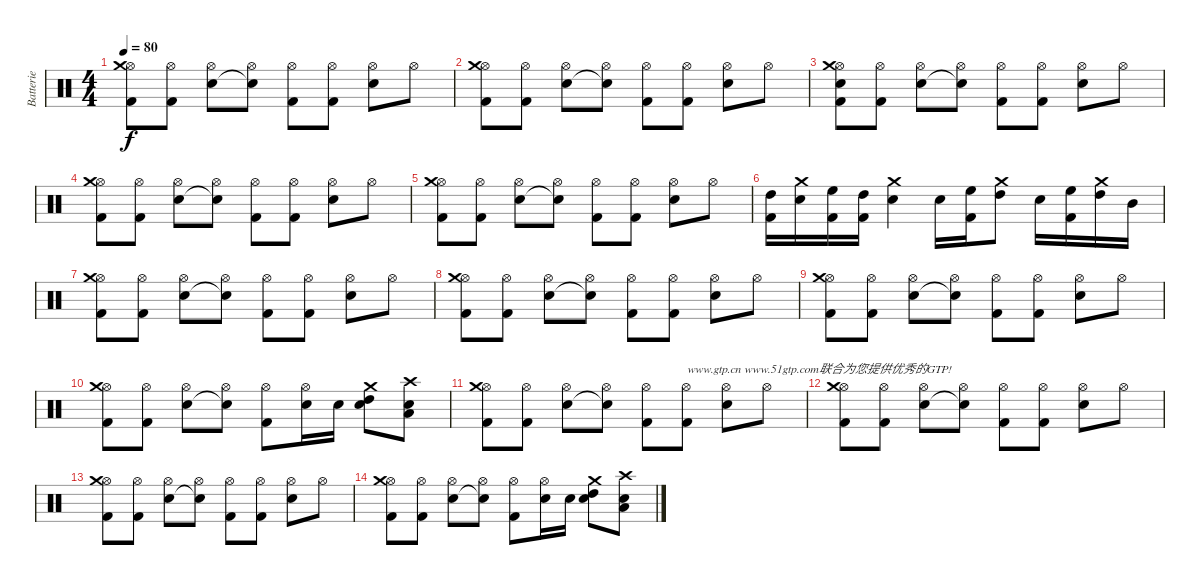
\track ("Batterie" "Batterie") {instrument percussion}
\staff {score}
\articulation defaults
\ts (4 4)
\tempo 80
\clef neutral
\ks c
("Hi-Hat (open)" "Crash medium (hit)" "Kick (hit) 2").8{dy f} ("Hi-Hat (open)" "Kick (hit) 2").8 ("Hi-Hat (open)" "Snare (hit) 2").8 ("Hi-Hat (open)" "Snare (hit)"{t}).8 ("Hi-Hat (open)" "Kick (hit) 2").8 ("Hi-Hat (open)" "Kick (hit) 2").8 ("Hi-Hat (open)" "Snare (hit) 2").8 "Hi-Hat (open)".8 |
("Hi-Hat (open)" "Crash medium (hit)" "Kick (hit) 2").8 ("Hi-Hat (open)" "Kick (hit) 2").8 ("Hi-Hat (open)" "Snare (hit) 2").8 ("Hi-Hat (open)" "Snare (hit)"{t}).8 ("Hi-Hat (open)" "Kick (hit) 2").8 ("Hi-Hat (open)" "Kick (hit) 2").8 ("Hi-Hat (open)" "Snare (hit) 2").8 "Hi-Hat (open)".8 |
("Hi-Hat (open)" "Crash medium (hit)" "Kick (hit) 2" "Snare (hit) 2").8 ("Hi-Hat (open)" "Kick (hit) 2").8 ("Hi-Hat (open)" "Snare (hit) 2").8 ("Hi-Hat (open)" "Snare (hit)"{t}).8 ("Hi-Hat (open)" "Kick (hit) 2").8 ("Hi-Hat (open)" "Kick (hit) 2").8 ("Hi-Hat (open)" "Snare (hit) 2").8 "Hi-Hat (open)".8 |
("Hi-Hat (open)" "Crash medium (hit)" "Kick (hit) 2").8 ("Hi-Hat (open)" "Kick (hit) 2").8 ("Hi-Hat (open)" "Snare (hit) 2").8 ("Hi-Hat (open)" "Snare (hit)"{t}).8 ("Hi-Hat (open)" "Kick (hit) 2").8 ("Hi-Hat (open)" "Kick (hit) 2").8 ("Hi-Hat (open)" "Snare (hit) 2").8 "Hi-Hat (open)".8 |
("Hi-Hat (open)" "Crash medium (hit)" "Kick (hit) 2").8 ("Hi-Hat (open)" "Kick (hit) 2").8 ("Hi-Hat (open)" "Snare (hit) 2").8 ("Hi-Hat (open)" "Snare (hit)"{t}).8 ("Hi-Hat (open)" "Kick (hit) 2").8 ("Hi-Hat (open)" "Kick (hit) 2").8 ("Hi-Hat (open)" "Snare (hit) 2").8 "Hi-Hat (open)".8 |
("Kick (hit) 2" "High Tom (hit)").16 ("Crash medium (hit)" "Snare (hit) 2").16 ("Kick (hit) 2" "High Floor Tom (hit)").16 ("Kick (hit) 2" "High Tom (hit)").16 ("Crash medium (hit)" "Snare (hit) 2").4 "Snare (hit) 2".16 ("Kick (hit) 2" "High Floor Tom (hit)").16 ("Crash medium (hit)" "High Tom (hit)").8 "Snare (hit) 2".16 ("Kick (hit) 2" "High Floor Tom (hit)").16 ("Crash medium (hit)" "High Tom (hit)").16 "Mid Tom (hit)".16 |
("Hi-Hat (open)" "Crash medium (hit)" "Kick (hit) 2").8 ("Hi-Hat (open)" "Kick (hit) 2").8 ("Hi-Hat (open)" "Snare (hit) 2").8 ("Hi-Hat (open)" "Snare (hit)"{t}).8 ("Hi-Hat (open)" "Kick (hit) 2").8 ("Hi-Hat (open)" "Kick (hit) 2").8 ("Hi-Hat (open)" "Snare (hit) 2").8 "Hi-Hat (open)".8 |
("Hi-Hat (open)" "Crash medium (hit)" "Kick (hit) 2").8 ("Hi-Hat (open)" "Kick (hit) 2").8 ("Hi-Hat (open)" "Snare (hit) 2").8 ("Hi-Hat (open)" "Snare (hit)"{t}).8 ("Hi-Hat (open)" "Kick (hit) 2").8 ("Hi-Hat (open)" "Kick (hit) 2").8 ("Hi-Hat (open)" "Snare (hit) 2").8 "Hi-Hat (open)".8 |
("Hi-Hat (open)" "Crash medium (hit)" "Kick (hit) 2").8 ("Hi-Hat (open)" "Kick (hit) 2").8 ("Hi-Hat (open)" "Snare (hit) 2").8 ("Hi-Hat (open)" "Snare (hit)"{t}).8 ("Hi-Hat (open)" "Kick (hit) 2").8 ("Hi-Hat (open)" "Kick (hit) 2").8 ("Hi-Hat (open)" "Snare (hit) 2").8 "Hi-Hat (open)".8 |
("Hi-Hat (open)" "Crash medium (hit)" "Kick (hit) 2").8 ("Hi-Hat (open)" "Kick (hit) 2").8 ("Hi-Hat (open)" "Snare (hit) 2").8 ("Hi-Hat (open)" "Snare (hit)"{t}).8 ("Hi-Hat (open)" "Kick (hit) 2").8 ("Hi-Hat (open)" "Snare (hit) 2").16 "Snare (hit) 2".16 ("Crash medium (hit)" "High Tom (hit)" "Snare (hit) 2").8 ("Crash high (hit)" "Low Tom (hit)" "Snare (hit) 2").8 |
("Hi-Hat (open)" "Crash medium (hit)" "Kick (hit) 2").8 ("Hi-Hat (open)" "Kick (hit) 2").8 ("Hi-Hat (open)" "Snare (hit) 2").8 ("Hi-Hat (open)" "Snare (hit)"{t}).8 ("Hi-Hat (open)" "Kick (hit) 2").8 ("Hi-Hat (open)" "Kick (hit) 2").8{txt "www.gtp.cn www.51gtp.com联合为您提供优秀的GTP!"} ("Hi-Hat (open)" "Snare (hit) 2").8 "Hi-Hat (open)".8 |
("Hi-Hat (open)" "Crash medium (hit)" "Kick (hit) 2").8 ("Hi-Hat (open)" "Kick (hit) 2").8 ("Hi-Hat (open)" "Snare (hit) 2").8 ("Hi-Hat (open)" "Snare (hit)"{t}).8 ("Hi-Hat (open)" "Kick (hit) 2").8 ("Hi-Hat (open)" "Kick (hit) 2").8 ("Hi-Hat (open)" "Snare (hit) 2").8 "Hi-Hat (open)".8 |
("Hi-Hat (open)" "Crash medium (hit)" "Kick (hit) 2").8 ("Hi-Hat (open)" "Kick (hit) 2").8 ("Hi-Hat (open)" "Snare (hit) 2").8 ("Hi-Hat (open)" "Snare (hit)"{t}).8 ("Hi-Hat (open)" "Kick (hit) 2").8 ("Hi-Hat (open)" "Kick (hit) 2").8 ("Hi-Hat (open)" "Snare (hit) 2").8 "Hi-Hat (open)".8 |
("Hi-Hat (open)" "Crash medium (hit)" "Kick (hit) 2").8 ("Hi-Hat (open)" "Kick (hit) 2").8 ("Hi-Hat (open)" "Snare (hit) 2").8 ("Hi-Hat (open)" "Snare (hit)"{t}).8 ("Hi-Hat (open)" "Kick (hit) 2").8 ("Hi-Hat (open)" "Snare (hit) 2").16 "Snare (hit) 2".16 ("Crash medium (hit)" "High Tom (hit)" "Snare (hit) 2").8 ("Crash high (hit)" "Low Tom (hit)" "Snare (hit) 2").8
